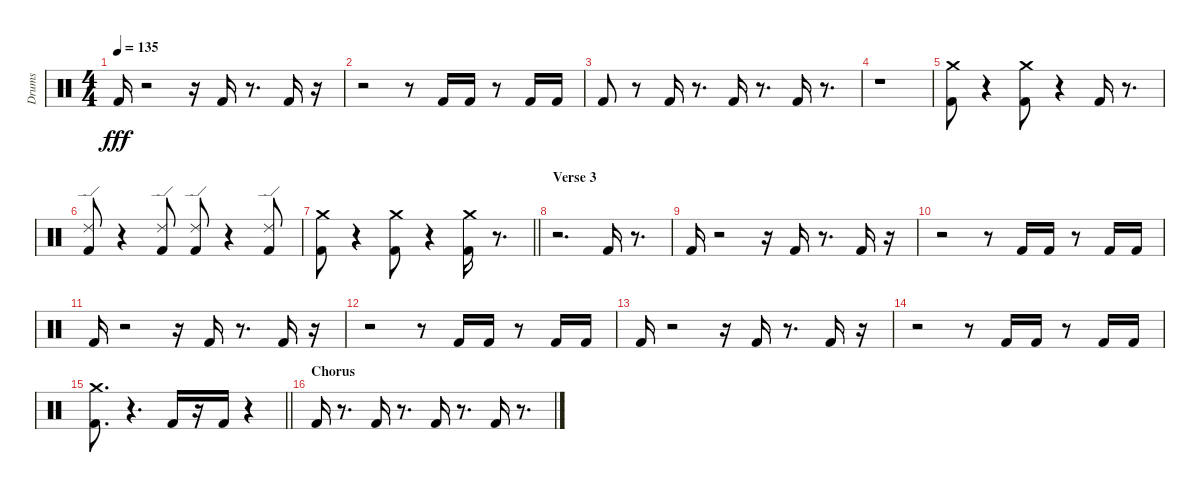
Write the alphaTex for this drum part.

\track ("Drums" "Drums") {instrument percussion}
\staff {score}
\articulation defaults
\ts (4 4)
\tempo 135
\clef neutral
\ks c "Kick (hit) 2".16{dy fff}
r.2 r.16 "Kick (hit) 2".16 r.8{d} "Kick (hit) 2".16 r.16 |
r.2 r.8 "Kick (hit) 2".16 "Kick (hit) 2".16 r.8 "Kick (hit) 2".16 "Kick (hit) 2".16 |
"Kick (hit) 2".8 r.8 "Kick (hit) 2".16 r.8{d} "Kick (hit) 2".16 r.8{d} "Kick (hit) 2".16 r.8{d} |
r.1 |
("Kick (hit) 2" "Crash medium (hit)").8 r.4 ("Kick (hit) 2" "Crash medium (hit)").8 r.4 "Kick (hit) 2".16 r.8{d} |
("Kick (hit) 2" "Ride (edge) 2").8 r.4 ("Kick (hit) 2" "Ride (edge) 2").8 ("Kick (hit) 2" "Ride (edge) 2").8 r.4 ("Kick (hit) 2" "Ride (edge) 2").8 |
\barLineRight lightlight
("Kick (hit) 2" "Crash medium (hit)").8 r.4 ("Kick (hit) 2" "Crash medium (hit)").8 r.4 ("Kick (hit) 2" "Crash medium (hit)").16 r.8{d} |
\section ("" "Verse 3")
r.2{d} "Kick (hit) 2".16 r.8{d} |
"Kick (hit) 2".16 r.2 r.16 "Kick (hit) 2".16 r.8{d} "Kick (hit) 2".16 r.16 |
r.2 r.8 "Kick (hit) 2".16 "Kick (hit) 2".16 r.8 "Kick (hit) 2".16 "Kick (hit) 2".16 |
"Kick (hit) 2".16 r.2 r.16 "Kick (hit) 2".16 r.8{d} "Kick (hit) 2".16 r.16 |
r.2 r.8 "Kick (hit) 2".16 "Kick (hit) 2".16 r.8 "Kick (hit) 2".16 "Kick (hit) 2".16 |
"Kick (hit) 2".16 r.2 r.16 "Kick (hit) 2".16 r.8{d} "Kick (hit) 2".16 r.16 |
r.2 r.8 "Kick (hit) 2".16 "Kick (hit) 2".16 r.8 "Kick (hit) 2".16 "Kick (hit) 2".16 |
\barLineRight lightlight
("Kick (hit) 2" "Crash medium (hit)").8{d} r.4{d} "Kick (hit) 2".16 r.16 "Kick (hit) 2".16 r.4 |
\section ("" "Chorus")
"Kick (hit) 2".16 r.8{d} "Kick (hit) 2".16 r.8{d} "Kick (hit) 2".16 r.8{d} "Kick (hit) 2".16 r.8{d}
